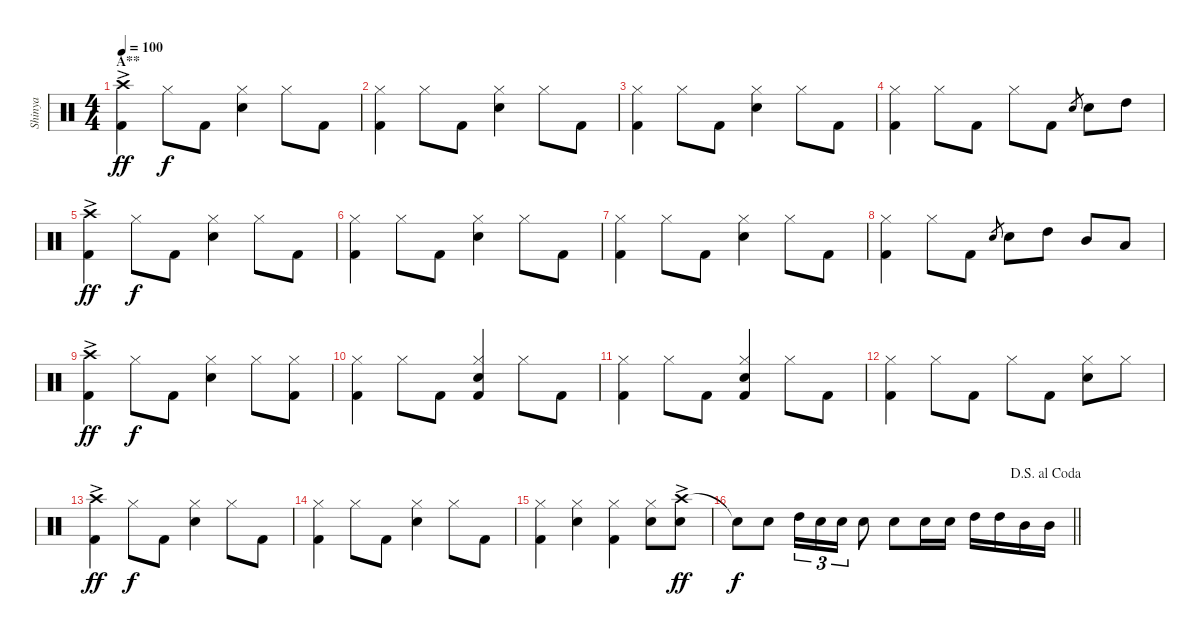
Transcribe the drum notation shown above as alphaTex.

\track ("Shinya" "Shinya") {instrument percussion}
\staff {score}
\articulation defaults
\ts (4 4)
\section ("" "A**")
\tempo 100
\clef neutral
\ks c
("Crash high (hit)"{ac} "Kick (hit) 2").4{dy ff} "Hi-Hat (closed)".8{dy f} "Kick (hit) 2".8 ("Hi-Hat (closed)" "Snare (hit) 2").4 "Hi-Hat (closed)".8 "Kick (hit) 2".8 |
("Hi-Hat (closed)" "Kick (hit) 2").4 "Hi-Hat (closed)".8 "Kick (hit) 2".8 ("Hi-Hat (closed)" "Snare (hit) 2").4 "Hi-Hat (closed)".8 "Kick (hit) 2".8 |
("Hi-Hat (closed)" "Kick (hit) 2").4 "Hi-Hat (closed)".8 "Kick (hit) 2".8 ("Hi-Hat (closed)" "Snare (hit) 2").4 "Hi-Hat (closed)".8 "Kick (hit) 2".8 |
("Hi-Hat (closed)" "Kick (hit) 2").4 "Hi-Hat (closed)".8 "Kick (hit) 2".8 "Hi-Hat (closed)".8 "Kick (hit) 2".8 "Snare (hit) 2".8{gr} "Snare (hit) 2".8 "High Tom (hit)".8 |
("Crash high (hit)"{ac} "Kick (hit) 2").4{dy ff} "Hi-Hat (closed)".8{dy f} "Kick (hit) 2".8 ("Hi-Hat (closed)" "Snare (hit) 2").4 "Hi-Hat (closed)".8 "Kick (hit) 2".8 |
("Hi-Hat (closed)" "Kick (hit) 2").4 "Hi-Hat (closed)".8 "Kick (hit) 2".8 ("Hi-Hat (closed)" "Snare (hit) 2").4 "Hi-Hat (closed)".8 "Kick (hit) 2".8 |
("Hi-Hat (closed)" "Kick (hit) 2").4 "Hi-Hat (closed)".8 "Kick (hit) 2".8 ("Hi-Hat (closed)" "Snare (hit) 2").4 "Hi-Hat (closed)".8 "Kick (hit) 2".8 |
("Hi-Hat (closed)" "Kick (hit) 2").4 "Hi-Hat (closed)".8 "Kick (hit) 2".8 "Snare (hit) 2".8{gr} "Snare (hit) 2".8 "High Tom (hit)".8 "Mid Tom (hit)".8 "Low Tom (hit)".8 |
("Crash high (hit)"{ac} "Kick (hit) 2").4{dy ff} "Hi-Hat (closed)".8{dy f} "Kick (hit) 2".8 ("Hi-Hat (closed)" "Snare (hit) 2").4 "Hi-Hat (closed)".8 ("Hi-Hat (closed)" "Kick (hit) 2").8 |
("Hi-Hat (closed)" "Kick (hit) 2").4 "Hi-Hat (closed)".8 "Kick (hit) 2".8 ("Hi-Hat (closed)" "Snare (hit) 2" "Kick (hit) 2").4 "Hi-Hat (closed)".8 "Kick (hit) 2".8 |
("Hi-Hat (closed)" "Kick (hit) 2").4 "Hi-Hat (closed)".8 "Kick (hit) 2".8 ("Hi-Hat (closed)" "Snare (hit) 2" "Kick (hit) 2").4 "Hi-Hat (closed)".8 "Kick (hit) 2".8 |
("Hi-Hat (closed)" "Kick (hit) 2").4 "Hi-Hat (closed)".8 "Kick (hit) 2".8 "Hi-Hat (closed)".8 "Kick (hit) 2".8 ("Hi-Hat (closed)" "Snare (hit) 2").8 "Hi-Hat (closed)".8 |
("Crash high (hit)"{ac} "Kick (hit) 2").4{dy ff} "Hi-Hat (closed)".8{dy f} "Kick (hit) 2".8 ("Hi-Hat (closed)" "Snare (hit) 2").4 "Hi-Hat (closed)".8 "Kick (hit) 2".8 |
("Hi-Hat (closed)" "Kick (hit) 2").4 "Hi-Hat (closed)".8 "Kick (hit) 2".8 ("Hi-Hat (closed)" "Snare (hit) 2").4 "Hi-Hat (closed)".8 "Kick (hit) 2".8 |
("Hi-Hat (closed)" "Kick (hit) 2").4 ("Hi-Hat (closed)" "Snare (hit) 2").4 ("Hi-Hat (closed)" "Kick (hit) 2").4 ("Hi-Hat (closed)" "Snare (hit) 2").8 ("Crash high (hit)"{ac} "Snare (hit) 2").8{dy ff} |
\jump dalsegnoalcoda
\barLineRight lightlight "Snare (hit)"{t}.8{dy f} "Snare (hit) 2".8 "High Tom (hit)".16{tu (3 2)} "Snare (hit) 2".16{tu (3 2)} "Snare (hit) 2".16{tu (3 2)} "Snare (hit) 2".8 "Snare (hit) 2".8 "Snare (hit) 2".16 "Snare (hit) 2".16 "High Tom (hit)".16 "High Tom (hit)".16 "Mid Tom (hit)".16 "Mid Tom (hit)".16
